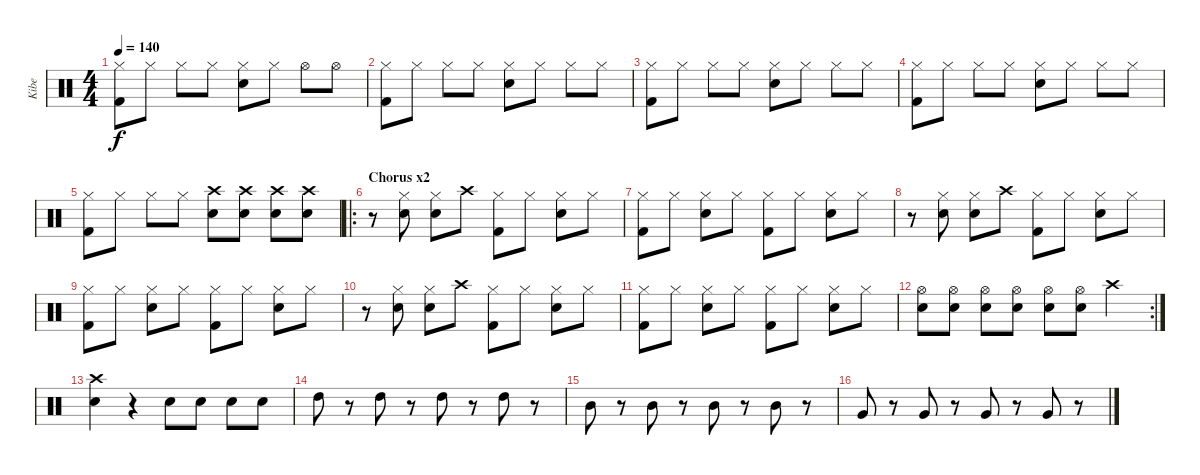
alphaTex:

\track ("Kibe" "Kibe") {instrument percussion}
\staff {score}
\articulation defaults
\ts (4 4)
\tempo 140
\clef neutral
\ks c
("Hi-Hat (closed)" "Kick (hit) 2").8{dy f} "Hi-Hat (closed)".8 "Hi-Hat (closed)".8 "Hi-Hat (closed)".8 ("Hi-Hat (closed)" "Snare (hit) 2").8 "Hi-Hat (closed)".8 "Hi-Hat (open)".8 "Hi-Hat (open)".8 |
("Hi-Hat (closed)" "Kick (hit) 2").8 "Hi-Hat (closed)".8 "Hi-Hat (closed)".8 "Hi-Hat (closed)".8 ("Hi-Hat (closed)" "Snare (hit) 2").8 "Hi-Hat (closed)".8 "Hi-Hat (closed)".8 "Hi-Hat (closed)".8 |
("Hi-Hat (closed)" "Kick (hit) 2").8 "Hi-Hat (closed)".8 "Hi-Hat (closed)".8 "Hi-Hat (closed)".8 ("Hi-Hat (closed)" "Snare (hit) 2").8 "Hi-Hat (closed)".8 "Hi-Hat (closed)".8 "Hi-Hat (closed)".8 |
("Hi-Hat (closed)" "Kick (hit) 2").8 "Hi-Hat (closed)".8 "Hi-Hat (closed)".8 "Hi-Hat (closed)".8 ("Hi-Hat (closed)" "Snare (hit) 2").8 "Hi-Hat (closed)".8 "Hi-Hat (closed)".8 "Hi-Hat (closed)".8 |
("Hi-Hat (closed)" "Kick (hit) 2").8 "Hi-Hat (closed)".8 "Hi-Hat (closed)".8 "Hi-Hat (closed)".8 ("Crash high (hit)" "Snare (hit) 2").8 ("Crash high (hit)" "Snare (hit) 2").8 ("Crash high (hit)" "Snare (hit) 2").8 ("Crash high (hit)" "Snare (hit) 2").8 |
\ro
\section ("" "Chorus x2")
r.8 ("Hi-Hat (closed)" "Snare (hit) 2").8 ("Hi-Hat (closed)" "Snare (hit) 2").8 "Crash high (hit)".8 ("Hi-Hat (closed)" "Kick (hit) 2").8 "Hi-Hat (closed)".8 ("Hi-Hat (closed)" "Snare (hit) 2").8 "Hi-Hat (closed)".8 |
("Hi-Hat (closed)" "Kick (hit) 2").8 "Hi-Hat (closed)".8 ("Hi-Hat (closed)" "Snare (hit) 2").8 "Hi-Hat (closed)".8 ("Hi-Hat (closed)" "Kick (hit) 2").8 "Hi-Hat (closed)".8 ("Hi-Hat (closed)" "Snare (hit) 2").8 "Hi-Hat (closed)".8 |
r.8 ("Hi-Hat (closed)" "Snare (hit) 2").8 ("Hi-Hat (closed)" "Snare (hit) 2").8 "Crash high (hit)".8 ("Hi-Hat (closed)" "Kick (hit) 2").8 "Hi-Hat (closed)".8 ("Hi-Hat (closed)" "Snare (hit) 2").8 "Hi-Hat (closed)".8 |
("Hi-Hat (closed)" "Kick (hit) 2").8 "Hi-Hat (closed)".8 ("Hi-Hat (closed)" "Snare (hit) 2").8 "Hi-Hat (closed)".8 ("Hi-Hat (closed)" "Kick (hit) 2").8 "Hi-Hat (closed)".8 ("Hi-Hat (closed)" "Snare (hit) 2").8 "Hi-Hat (closed)".8 |
r.8 ("Hi-Hat (closed)" "Snare (hit) 2").8 ("Hi-Hat (closed)" "Snare (hit) 2").8 "Crash high (hit)".8 ("Hi-Hat (closed)" "Kick (hit) 2").8 "Hi-Hat (closed)".8 ("Hi-Hat (closed)" "Snare (hit) 2").8 "Hi-Hat (closed)".8 |
("Hi-Hat (closed)" "Kick (hit) 2").8 "Hi-Hat (closed)".8 ("Hi-Hat (closed)" "Snare (hit) 2").8 "Hi-Hat (closed)".8 ("Hi-Hat (closed)" "Kick (hit) 2").8 "Hi-Hat (closed)".8 ("Hi-Hat (closed)" "Snare (hit) 2").8 "Hi-Hat (closed)".8 |
\rc 2
("Snare (hit) 2" "Hi-Hat (open)").8 ("Snare (hit) 2" "Hi-Hat (open)").8 ("Snare (hit) 2" "Hi-Hat (open)").8 ("Snare (hit) 2" "Hi-Hat (open)").8 ("Snare (hit) 2" "Hi-Hat (open)").8 ("Snare (hit) 2" "Hi-Hat (open)").8 "Crash high (hit)".4 |
("Crash high (hit)" "Snare (hit) 2").4 r.4 "Snare (hit) 2".8 "Snare (hit) 2".8 "Snare (hit) 2".8 "Snare (hit) 2".8 |
"High Tom (hit)".8 r.8 "High Tom (hit)".8 r.8 "High Tom (hit)".8 r.8 "High Tom (hit)".8 r.8 |
"Mid Tom (hit)".8 r.8 "Mid Tom (hit)".8 r.8 "Mid Tom (hit)".8 r.8 "Mid Tom (hit)".8 r.8 |
"Very Low Tom (hit)".8 r.8 "Very Low Tom (hit)".8 r.8 "Very Low Tom (hit)".8 r.8 "Very Low Tom (hit)".8 r.8
